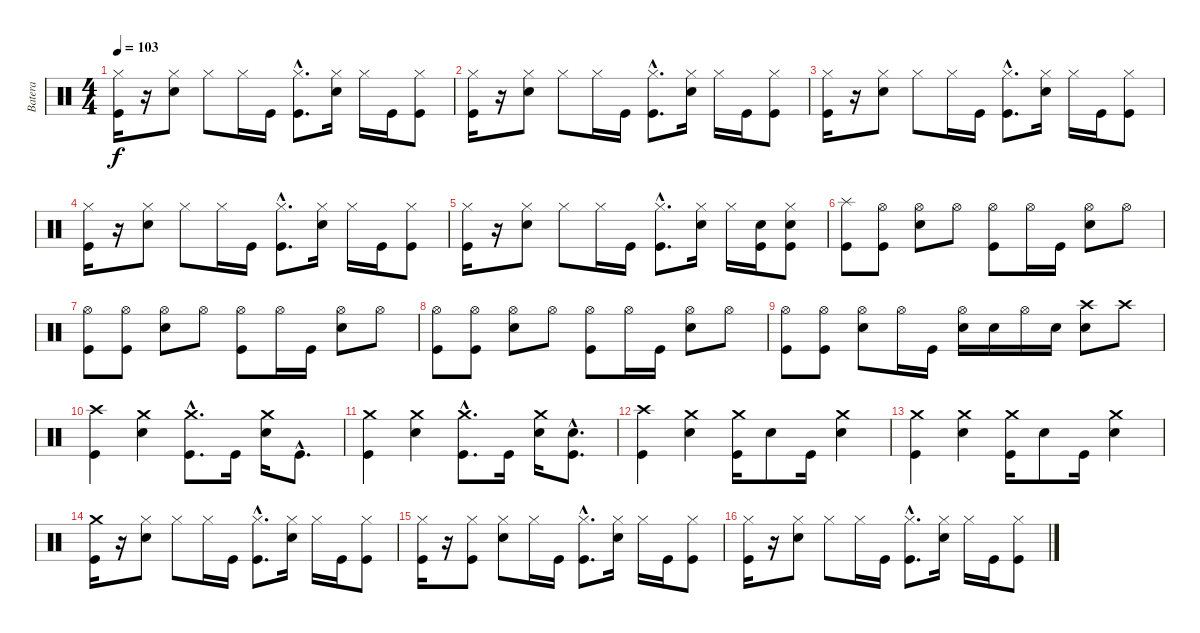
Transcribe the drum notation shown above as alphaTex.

\track ("Batera" "Batera") {instrument percussion}
\staff {score}
\articulation defaults
\ts (4 4)
\tempo 103
\clef neutral
\ks c
("Hi-Hat (closed)" "Kick (hit)").16{dy f} r.16 ("Hi-Hat (closed)" "Snare (hit) 2").8 "Hi-Hat (closed)".8 "Hi-Hat (closed)".16 "Kick (hit)".16 ("Hi-Hat (closed)"{hac} "Kick (hit)"{hac}).8{d} ("Hi-Hat (closed)" "Snare (hit) 2").16 "Hi-Hat (closed)".16 "Kick (hit)".16 ("Hi-Hat (closed)" "Kick (hit)").8 |
("Hi-Hat (closed)" "Kick (hit)").16 r.16 ("Hi-Hat (closed)" "Snare (hit) 2").8 "Hi-Hat (closed)".8 "Hi-Hat (closed)".16 "Kick (hit)".16 ("Hi-Hat (closed)"{hac} "Kick (hit)"{hac}).8{d} ("Hi-Hat (closed)" "Snare (hit) 2").16 "Hi-Hat (closed)".16 "Kick (hit)".16 ("Hi-Hat (closed)" "Kick (hit)").8 |
("Hi-Hat (closed)" "Kick (hit)").16 r.16 ("Hi-Hat (closed)" "Snare (hit) 2").8 "Hi-Hat (closed)".8 "Hi-Hat (closed)".16 "Kick (hit)".16 ("Hi-Hat (closed)"{hac} "Kick (hit)"{hac}).8{d} ("Hi-Hat (closed)" "Snare (hit) 2").16 "Hi-Hat (closed)".16 "Kick (hit)".16 ("Hi-Hat (closed)" "Kick (hit)").8 |
("Hi-Hat (closed)" "Kick (hit)").16 r.16 ("Hi-Hat (closed)" "Snare (hit) 2").8 "Hi-Hat (closed)".8 "Hi-Hat (closed)".16 "Kick (hit)".16 ("Hi-Hat (closed)"{hac} "Kick (hit)"{hac}).8{d} ("Hi-Hat (closed)" "Snare (hit) 2").16 "Hi-Hat (closed)".16 "Kick (hit)".16 ("Hi-Hat (closed)" "Kick (hit)").8 |
("Hi-Hat (closed)" "Kick (hit)").16 r.16 ("Hi-Hat (closed)" "Snare (hit) 2").8 "Hi-Hat (closed)".8 "Hi-Hat (closed)".16 "Kick (hit)".16 ("Hi-Hat (closed)"{hac} "Kick (hit)"{hac}).8{d} ("Hi-Hat (closed)" "Snare (hit) 2").16 "Hi-Hat (closed)".16 ("Snare (hit) 2" "Kick (hit)").16 ("Hi-Hat (closed)" "Snare (hit) 2" "Kick (hit)").8 |
("Splash (hit)" "Kick (hit)").8 ("Hi-Hat (open)" "Kick (hit)").8 ("Hi-Hat (open)" "Snare (hit) 2").8 "Hi-Hat (open)".8 ("Hi-Hat (open)" "Kick (hit)").8 "Hi-Hat (open)".16 "Kick (hit)".16 ("Hi-Hat (open)" "Snare (hit) 2").8 "Hi-Hat (open)".8 |
("Hi-Hat (open)" "Kick (hit)").8 ("Hi-Hat (open)" "Kick (hit)").8 ("Hi-Hat (open)" "Snare (hit) 2").8 "Hi-Hat (open)".8 ("Hi-Hat (open)" "Kick (hit)").8 "Hi-Hat (open)".16 "Kick (hit)".16 ("Hi-Hat (open)" "Snare (hit) 2").8 "Hi-Hat (open)".8 |
("Hi-Hat (open)" "Kick (hit)").8 ("Hi-Hat (open)" "Kick (hit)").8 ("Hi-Hat (open)" "Snare (hit) 2").8 "Hi-Hat (open)".8 ("Hi-Hat (open)" "Kick (hit)").8 "Hi-Hat (open)".16 "Kick (hit)".16 ("Hi-Hat (open)" "Snare (hit) 2").8 "Hi-Hat (open)".8 |
("Hi-Hat (open)" "Kick (hit)").8 ("Hi-Hat (open)" "Kick (hit)").8 ("Hi-Hat (open)" "Snare (hit) 2").8 "Hi-Hat (open)".16 "Kick (hit)".16 ("Hi-Hat (open)" "Snare (hit) 2").16 "Snare (hit) 2".16 "Hi-Hat (open)".16 "Snare (hit) 2".16 ("Crash high (hit)" "Snare (hit) 2").8 "Crash high (hit)".8 |
("Crash high (hit)" "Kick (hit)").4 ("Crash medium (hit)" "Snare (hit) 2").4 ("Crash medium (hit)"{hac} "Kick (hit)"{hac}).8{d} "Kick (hit)".16 ("Crash medium (hit)" "Snare (hit) 2").16 "Kick (hit)"{hac}.8{d} |
("Crash medium (hit)" "Kick (hit)").4 ("Crash medium (hit)" "Snare (hit) 2").4 ("Crash medium (hit)"{hac} "Kick (hit)"{hac}).8{d} "Kick (hit)".16 ("Crash medium (hit)" "Snare (hit) 2").16 ("Snare (hit) 2"{hac} "Kick (hit)"{hac}).8{d} |
("Crash high (hit)" "Kick (hit)").4 ("Crash medium (hit)" "Snare (hit) 2").4 ("Crash medium (hit)" "Kick (hit)").16 "Snare (hit) 2".8 "Kick (hit)".16 ("Crash medium (hit)" "Snare (hit) 2").4 |
("Crash medium (hit)" "Kick (hit)").4 ("Crash medium (hit)" "Snare (hit) 2").4 ("Crash medium (hit)" "Kick (hit)").16 "Snare (hit) 2".8 "Kick (hit)".16 ("Crash medium (hit)" "Snare (hit) 2").4 |
("Crash medium (hit)" "Kick (hit)").16 r.16 ("Hi-Hat (closed)" "Snare (hit) 2").8 "Hi-Hat (closed)".8 "Hi-Hat (closed)".16 "Kick (hit)".16 ("Hi-Hat (closed)"{hac} "Kick (hit)"{hac}).8{d} ("Hi-Hat (closed)" "Snare (hit) 2").16 "Hi-Hat (closed)".16 "Kick (hit)".16 ("Hi-Hat (closed)" "Kick (hit)").8 |
("Hi-Hat (closed)" "Kick (hit)").16 r.16 ("Hi-Hat (closed)" "Kick (hit)").8 ("Hi-Hat (closed)" "Snare (hit) 2").8 "Hi-Hat (closed)".16 "Kick (hit)".16 ("Hi-Hat (closed)"{hac} "Kick (hit)"{hac}).8{d} ("Hi-Hat (closed)" "Snare (hit) 2").16 "Hi-Hat (closed)".16 "Kick (hit)".16 ("Hi-Hat (closed)" "Kick (hit)").8 |
("Hi-Hat (closed)" "Kick (hit)").16 r.16 ("Hi-Hat (closed)" "Snare (hit) 2").8 "Hi-Hat (closed)".8 "Hi-Hat (closed)".16 "Kick (hit)".16 ("Hi-Hat (closed)"{hac} "Kick (hit)"{hac}).8{d} ("Hi-Hat (closed)" "Snare (hit) 2").16 "Hi-Hat (closed)".16 "Kick (hit)".16 ("Hi-Hat (closed)" "Kick (hit)").8
